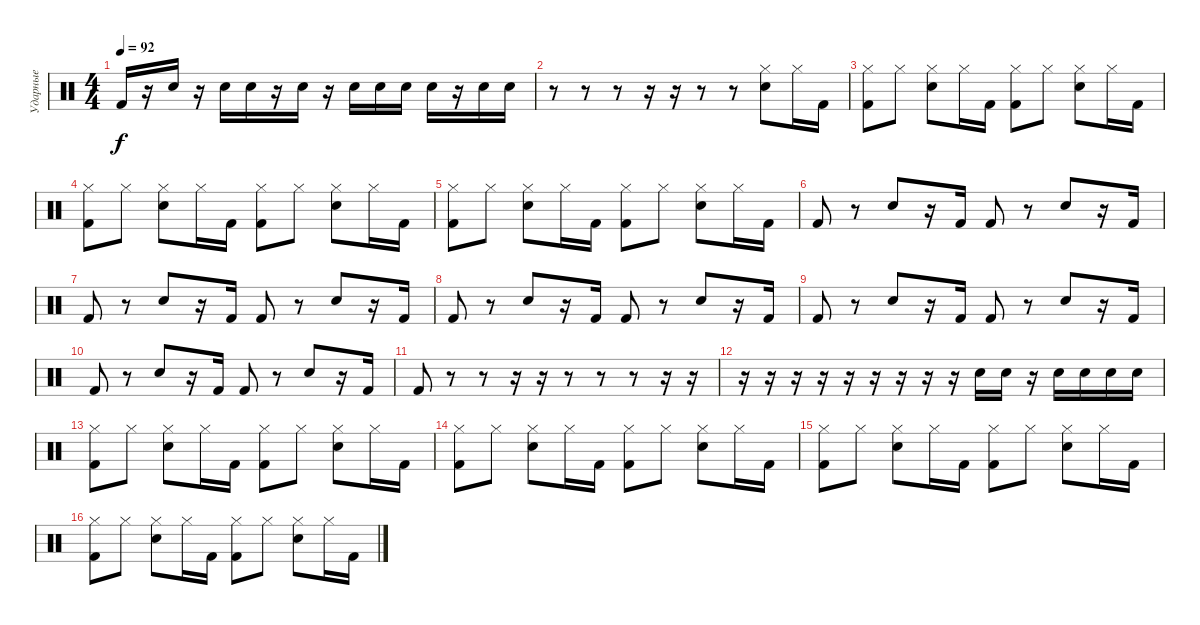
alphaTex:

\track ("Ударные" "Ударные") {instrument percussion}
\staff {score}
\articulation defaults
\ts (4 4)
\tempo 92
\clef neutral
\ks c "Kick (hit) 2".16{dy f}
r.16 "Snare (hit) 2".16 r.16 "Snare (hit) 2".16 "Snare (hit) 2".16 r.16 "Snare (hit) 2".16 r.16 "Snare (hit) 2".16 "Snare (hit) 2".16 "Snare (hit) 2".16 "Snare (hit) 2".16 r.16 "Snare (hit) 2".16 "Snare (hit) 2".16 |
r.8 r.8 r.8 r.16 r.16 r.8 r.8 ("Hi-Hat (closed)" "Snare (hit) 2").8 "Hi-Hat (closed)".16 "Kick (hit) 2".16 |
("Hi-Hat (closed)" "Kick (hit) 2").8 "Hi-Hat (closed)".8 ("Hi-Hat (closed)" "Snare (hit) 2").8 "Hi-Hat (closed)".16 "Kick (hit) 2".16 ("Hi-Hat (closed)" "Kick (hit) 2").8 "Hi-Hat (closed)".8 ("Hi-Hat (closed)" "Snare (hit) 2").8 "Hi-Hat (closed)".16 "Kick (hit) 2".16 |
("Hi-Hat (closed)" "Kick (hit) 2").8 "Hi-Hat (closed)".8 ("Hi-Hat (closed)" "Snare (hit) 2").8 "Hi-Hat (closed)".16 "Kick (hit) 2".16 ("Hi-Hat (closed)" "Kick (hit) 2").8 "Hi-Hat (closed)".8 ("Hi-Hat (closed)" "Snare (hit) 2").8 "Hi-Hat (closed)".16 "Kick (hit) 2".16 |
("Hi-Hat (closed)" "Kick (hit) 2").8 "Hi-Hat (closed)".8 ("Hi-Hat (closed)" "Snare (hit) 2").8 "Hi-Hat (closed)".16 "Kick (hit) 2".16 ("Hi-Hat (closed)" "Kick (hit) 2").8 "Hi-Hat (closed)".8 ("Hi-Hat (closed)" "Snare (hit) 2").8 "Hi-Hat (closed)".16 "Kick (hit) 2".16 |
"Kick (hit) 2".8 r.8 "Snare (hit) 2".8 r.16 "Kick (hit) 2".16 "Kick (hit) 2".8 r.8 "Snare (hit) 2".8 r.16 "Kick (hit) 2".16 |
"Kick (hit) 2".8 r.8 "Snare (hit) 2".8 r.16 "Kick (hit) 2".16 "Kick (hit) 2".8 r.8 "Snare (hit) 2".8 r.16 "Kick (hit) 2".16 |
"Kick (hit) 2".8 r.8 "Snare (hit) 2".8 r.16 "Kick (hit) 2".16 "Kick (hit) 2".8 r.8 "Snare (hit) 2".8 r.16 "Kick (hit) 2".16 |
"Kick (hit) 2".8 r.8 "Snare (hit) 2".8 r.16 "Kick (hit) 2".16 "Kick (hit) 2".8 r.8 "Snare (hit) 2".8 r.16 "Kick (hit) 2".16 |
"Kick (hit) 2".8 r.8 "Snare (hit) 2".8 r.16 "Kick (hit) 2".16 "Kick (hit) 2".8 r.8 "Snare (hit) 2".8 r.16 "Kick (hit) 2".16 |
"Kick (hit) 2".8 r.8 r.8 r.16 r.16 r.8 r.8 r.8 r.16 r.16 |
r.16 r.16 r.16 r.16 r.16 r.16 r.16 r.16 r.16 "Snare (hit) 2".16 "Snare (hit) 2".16 r.16 "Snare (hit) 2".16 "Snare (hit) 2".16 "Snare (hit) 2".16 "Snare (hit) 2".16 |
("Hi-Hat (closed)" "Kick (hit) 2").8 "Hi-Hat (closed)".8 ("Hi-Hat (closed)" "Snare (hit) 2").8 "Hi-Hat (closed)".16 "Kick (hit) 2".16 ("Hi-Hat (closed)" "Kick (hit) 2").8 "Hi-Hat (closed)".8 ("Hi-Hat (closed)" "Snare (hit) 2").8 "Hi-Hat (closed)".16 "Kick (hit) 2".16 |
("Hi-Hat (closed)" "Kick (hit) 2").8 "Hi-Hat (closed)".8 ("Hi-Hat (closed)" "Snare (hit) 2").8 "Hi-Hat (closed)".16 "Kick (hit) 2".16 ("Hi-Hat (closed)" "Kick (hit) 2").8 "Hi-Hat (closed)".8 ("Hi-Hat (closed)" "Snare (hit) 2").8 "Hi-Hat (closed)".16 "Kick (hit) 2".16 |
("Hi-Hat (closed)" "Kick (hit) 2").8 "Hi-Hat (closed)".8 ("Hi-Hat (closed)" "Snare (hit) 2").8 "Hi-Hat (closed)".16 "Kick (hit) 2".16 ("Hi-Hat (closed)" "Kick (hit) 2").8 "Hi-Hat (closed)".8 ("Hi-Hat (closed)" "Snare (hit) 2").8 "Hi-Hat (closed)".16 "Kick (hit) 2".16 |
("Hi-Hat (closed)" "Kick (hit) 2").8 "Hi-Hat (closed)".8 ("Hi-Hat (closed)" "Snare (hit) 2").8 "Hi-Hat (closed)".16 "Kick (hit) 2".16 ("Hi-Hat (closed)" "Kick (hit) 2").8 "Hi-Hat (closed)".8 ("Hi-Hat (closed)" "Snare (hit) 2").8 "Hi-Hat (closed)".16 "Kick (hit) 2".16
